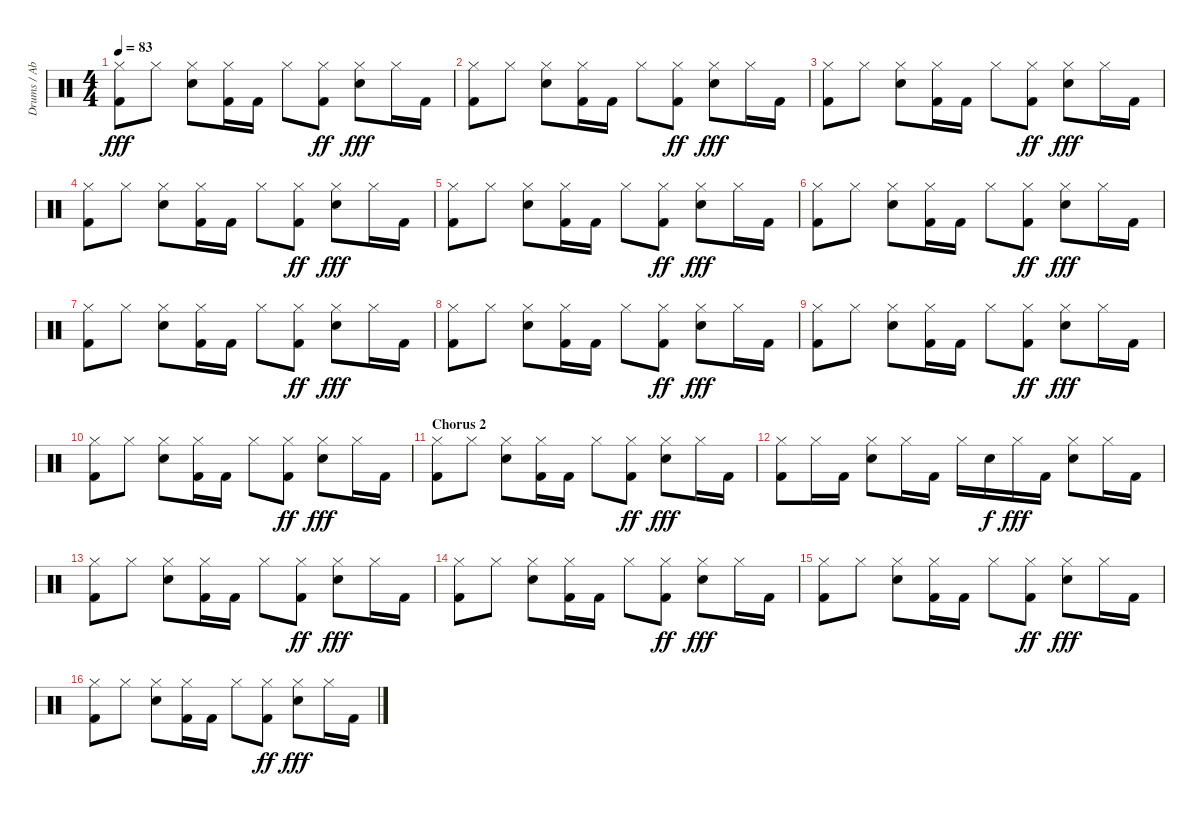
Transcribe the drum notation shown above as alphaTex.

\track ("Drums / Abe Cunningham" "Drums / Ab") {instrument percussion}
\staff {score}
\articulation defaults
\ts (4 4)
\tempo 83
\clef neutral
\ks c
("Hi-Hat (closed)" "Kick (hit) 2").8{dy fff} "Hi-Hat (closed)".8 ("Hi-Hat (closed)" "Electric Snare (hit)").8 ("Hi-Hat (closed)" "Kick (hit) 2").16 "Kick (hit) 2".16 "Hi-Hat (closed)".8 ("Hi-Hat (closed)" "Kick (hit) 2").8{dy ff} ("Hi-Hat (closed)" "Electric Snare (hit)").8{dy fff} "Hi-Hat (closed)".16 "Kick (hit) 2".16 |
("Hi-Hat (closed)" "Kick (hit) 2").8 "Hi-Hat (closed)".8 ("Hi-Hat (closed)" "Electric Snare (hit)").8 ("Hi-Hat (closed)" "Kick (hit) 2").16 "Kick (hit) 2".16 "Hi-Hat (closed)".8 ("Hi-Hat (closed)" "Kick (hit) 2").8{dy ff} ("Hi-Hat (closed)" "Electric Snare (hit)").8{dy fff} "Hi-Hat (closed)".16 "Kick (hit) 2".16 |
("Hi-Hat (closed)" "Kick (hit) 2").8 "Hi-Hat (closed)".8 ("Hi-Hat (closed)" "Electric Snare (hit)").8 ("Hi-Hat (closed)" "Kick (hit) 2").16 "Kick (hit) 2".16 "Hi-Hat (closed)".8 ("Hi-Hat (closed)" "Kick (hit) 2").8{dy ff} ("Hi-Hat (closed)" "Electric Snare (hit)").8{dy fff} "Hi-Hat (closed)".16 "Kick (hit) 2".16 |
("Hi-Hat (closed)" "Kick (hit) 2").8 "Hi-Hat (closed)".8 ("Hi-Hat (closed)" "Electric Snare (hit)").8 ("Hi-Hat (closed)" "Kick (hit) 2").16 "Kick (hit) 2".16 "Hi-Hat (closed)".8 ("Hi-Hat (closed)" "Kick (hit) 2").8{dy ff} ("Hi-Hat (closed)" "Electric Snare (hit)").8{dy fff} "Hi-Hat (closed)".16 "Kick (hit) 2".16 |
("Hi-Hat (closed)" "Kick (hit) 2").8 "Hi-Hat (closed)".8 ("Hi-Hat (closed)" "Electric Snare (hit)").8 ("Hi-Hat (closed)" "Kick (hit) 2").16 "Kick (hit) 2".16 "Hi-Hat (closed)".8 ("Hi-Hat (closed)" "Kick (hit) 2").8{dy ff} ("Hi-Hat (closed)" "Electric Snare (hit)").8{dy fff} "Hi-Hat (closed)".16 "Kick (hit) 2".16 |
("Hi-Hat (closed)" "Kick (hit) 2").8 "Hi-Hat (closed)".8 ("Hi-Hat (closed)" "Electric Snare (hit)").8 ("Hi-Hat (closed)" "Kick (hit) 2").16 "Kick (hit) 2".16 "Hi-Hat (closed)".8 ("Hi-Hat (closed)" "Kick (hit) 2").8{dy ff} ("Hi-Hat (closed)" "Electric Snare (hit)").8{dy fff} "Hi-Hat (closed)".16 "Kick (hit) 2".16 |
("Hi-Hat (closed)" "Kick (hit) 2").8 "Hi-Hat (closed)".8 ("Hi-Hat (closed)" "Electric Snare (hit)").8 ("Hi-Hat (closed)" "Kick (hit) 2").16 "Kick (hit) 2".16 "Hi-Hat (closed)".8 ("Hi-Hat (closed)" "Kick (hit) 2").8{dy ff} ("Hi-Hat (closed)" "Electric Snare (hit)").8{dy fff} "Hi-Hat (closed)".16 "Kick (hit) 2".16 |
("Hi-Hat (closed)" "Kick (hit) 2").8 "Hi-Hat (closed)".8 ("Hi-Hat (closed)" "Electric Snare (hit)").8 ("Hi-Hat (closed)" "Kick (hit) 2").16 "Kick (hit) 2".16 "Hi-Hat (closed)".8 ("Hi-Hat (closed)" "Kick (hit) 2").8{dy ff} ("Hi-Hat (closed)" "Electric Snare (hit)").8{dy fff} "Hi-Hat (closed)".16 "Kick (hit) 2".16 |
("Hi-Hat (closed)" "Kick (hit) 2").8 "Hi-Hat (closed)".8 ("Hi-Hat (closed)" "Electric Snare (hit)").8 ("Hi-Hat (closed)" "Kick (hit) 2").16 "Kick (hit) 2".16 "Hi-Hat (closed)".8 ("Hi-Hat (closed)" "Kick (hit) 2").8{dy ff} ("Hi-Hat (closed)" "Electric Snare (hit)").8{dy fff} "Hi-Hat (closed)".16 "Kick (hit) 2".16 |
("Hi-Hat (closed)" "Kick (hit) 2").8 "Hi-Hat (closed)".8 ("Hi-Hat (closed)" "Electric Snare (hit)").8 ("Hi-Hat (closed)" "Kick (hit) 2").16 "Kick (hit) 2".16 "Hi-Hat (closed)".8 ("Hi-Hat (closed)" "Kick (hit) 2").8{dy ff} ("Hi-Hat (closed)" "Electric Snare (hit)").8{dy fff} "Hi-Hat (closed)".16 "Kick (hit) 2".16 |
\section ("" "Chorus 2")
("Hi-Hat (closed)" "Kick (hit) 2").8 "Hi-Hat (closed)".8 ("Hi-Hat (closed)" "Electric Snare (hit)").8 ("Hi-Hat (closed)" "Kick (hit) 2").16 "Kick (hit) 2".16 "Hi-Hat (closed)".8 ("Hi-Hat (closed)" "Kick (hit) 2").8{dy ff} ("Hi-Hat (closed)" "Electric Snare (hit)").8{dy fff} "Hi-Hat (closed)".16 "Kick (hit) 2".16 |
("Hi-Hat (closed)" "Kick (hit) 2").8 "Hi-Hat (closed)".16 "Kick (hit) 2".16 ("Hi-Hat (closed)" "Electric Snare (hit)").8 "Hi-Hat (closed)".16 "Kick (hit) 2".16 "Hi-Hat (closed)".16 "Electric Snare (hit)".16{dy f} "Hi-Hat (closed)".16{dy fff} "Kick (hit) 2".16 ("Hi-Hat (closed)" "Electric Snare (hit)").8 "Hi-Hat (closed)".16 "Kick (hit) 2".16 |
("Hi-Hat (closed)" "Kick (hit) 2").8 "Hi-Hat (closed)".8 ("Hi-Hat (closed)" "Electric Snare (hit)").8 ("Hi-Hat (closed)" "Kick (hit) 2").16 "Kick (hit) 2".16 "Hi-Hat (closed)".8 ("Hi-Hat (closed)" "Kick (hit) 2").8{dy ff} ("Hi-Hat (closed)" "Electric Snare (hit)").8{dy fff} "Hi-Hat (closed)".16 "Kick (hit) 2".16 |
("Hi-Hat (closed)" "Kick (hit) 2").8 "Hi-Hat (closed)".8 ("Hi-Hat (closed)" "Electric Snare (hit)").8 ("Hi-Hat (closed)" "Kick (hit) 2").16 "Kick (hit) 2".16 "Hi-Hat (closed)".8 ("Hi-Hat (closed)" "Kick (hit) 2").8{dy ff} ("Hi-Hat (closed)" "Electric Snare (hit)").8{dy fff} "Hi-Hat (closed)".16 "Kick (hit) 2".16 |
("Hi-Hat (closed)" "Kick (hit) 2").8 "Hi-Hat (closed)".8 ("Hi-Hat (closed)" "Electric Snare (hit)").8 ("Hi-Hat (closed)" "Kick (hit) 2").16 "Kick (hit) 2".16 "Hi-Hat (closed)".8 ("Hi-Hat (closed)" "Kick (hit) 2").8{dy ff} ("Hi-Hat (closed)" "Electric Snare (hit)").8{dy fff} "Hi-Hat (closed)".16 "Kick (hit) 2".16 |
("Hi-Hat (closed)" "Kick (hit) 2").8 "Hi-Hat (closed)".8 ("Hi-Hat (closed)" "Electric Snare (hit)").8 ("Hi-Hat (closed)" "Kick (hit) 2").16 "Kick (hit) 2".16 "Hi-Hat (closed)".8 ("Hi-Hat (closed)" "Kick (hit) 2").8{dy ff} ("Hi-Hat (closed)" "Electric Snare (hit)").8{dy fff} "Hi-Hat (closed)".16 "Kick (hit) 2".16
